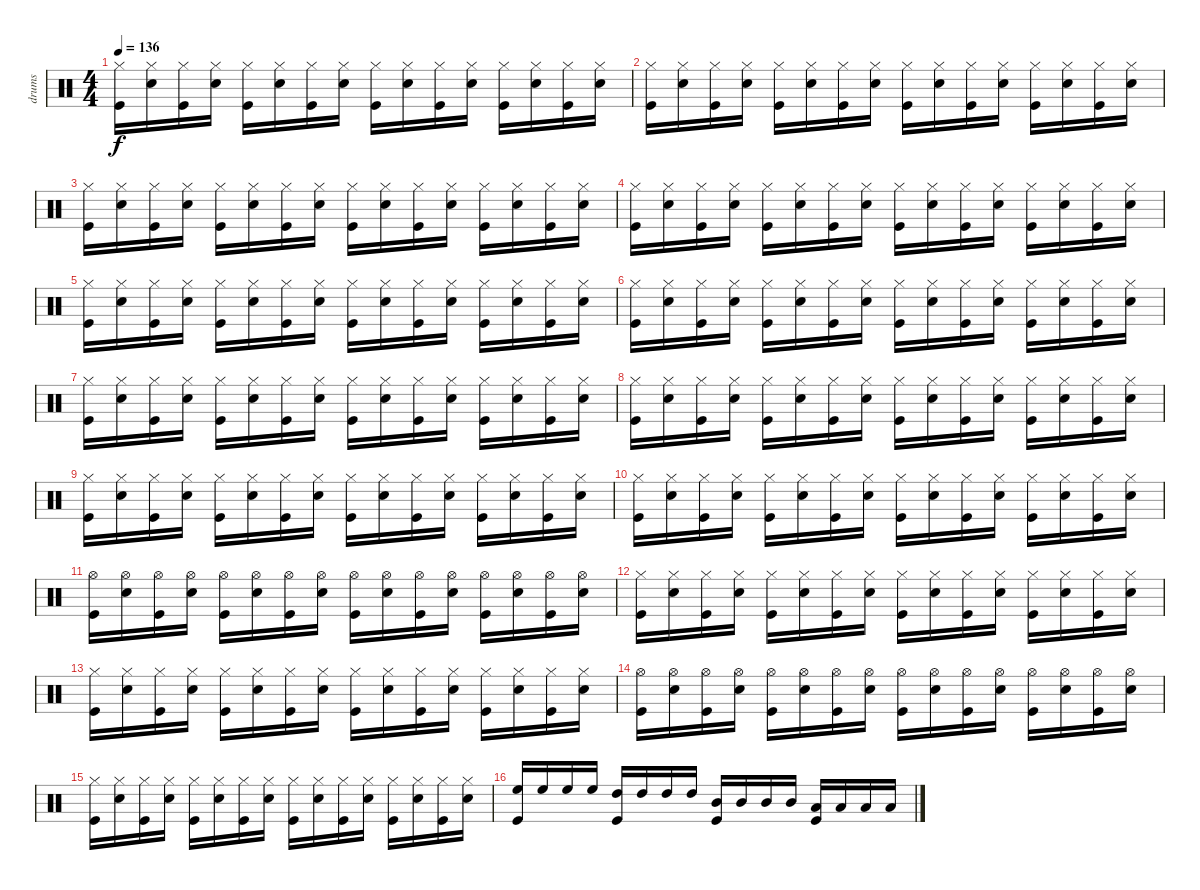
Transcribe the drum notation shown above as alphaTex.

\track ("drums" "drums") {instrument percussion}
\staff {score}
\articulation defaults
\ts (4 4)
\tempo 136
\clef neutral
\ks c
("Hi-Hat (closed)" "Kick (hit)").16{dy f} ("Hi-Hat (closed)" "Snare (hit) 2").16 ("Hi-Hat (closed)" "Kick (hit)").16 ("Hi-Hat (closed)" "Snare (hit) 2").16 ("Hi-Hat (closed)" "Kick (hit)").16 ("Hi-Hat (closed)" "Snare (hit) 2").16 ("Hi-Hat (closed)" "Kick (hit)").16 ("Hi-Hat (closed)" "Snare (hit) 2").16 ("Hi-Hat (closed)" "Kick (hit)").16 ("Hi-Hat (closed)" "Snare (hit) 2").16 ("Hi-Hat (closed)" "Kick (hit)").16 ("Hi-Hat (closed)" "Snare (hit) 2").16 ("Hi-Hat (closed)" "Kick (hit)").16 ("Hi-Hat (closed)" "Snare (hit) 2").16 ("Hi-Hat (closed)" "Kick (hit)").16 ("Hi-Hat (closed)" "Snare (hit) 2").16 |
("Hi-Hat (closed)" "Kick (hit)").16 ("Hi-Hat (closed)" "Snare (hit) 2").16 ("Hi-Hat (closed)" "Kick (hit)").16 ("Hi-Hat (closed)" "Snare (hit) 2").16 ("Hi-Hat (closed)" "Kick (hit)").16 ("Hi-Hat (closed)" "Snare (hit) 2").16 ("Hi-Hat (closed)" "Kick (hit)").16 ("Hi-Hat (closed)" "Snare (hit) 2").16 ("Hi-Hat (closed)" "Kick (hit)").16 ("Hi-Hat (closed)" "Snare (hit) 2").16 ("Hi-Hat (closed)" "Kick (hit)").16 ("Hi-Hat (closed)" "Snare (hit) 2").16 ("Hi-Hat (closed)" "Kick (hit)").16 ("Hi-Hat (closed)" "Snare (hit) 2").16 ("Hi-Hat (closed)" "Kick (hit)").16 ("Hi-Hat (closed)" "Snare (hit) 2").16 |
("Hi-Hat (closed)" "Kick (hit)").16 ("Hi-Hat (closed)" "Snare (hit) 2").16 ("Hi-Hat (closed)" "Kick (hit)").16 ("Hi-Hat (closed)" "Snare (hit) 2").16 ("Hi-Hat (closed)" "Kick (hit)").16 ("Hi-Hat (closed)" "Snare (hit) 2").16 ("Hi-Hat (closed)" "Kick (hit)").16 ("Hi-Hat (closed)" "Snare (hit) 2").16 ("Hi-Hat (closed)" "Kick (hit)").16 ("Hi-Hat (closed)" "Snare (hit) 2").16 ("Hi-Hat (closed)" "Kick (hit)").16 ("Hi-Hat (closed)" "Snare (hit) 2").16 ("Hi-Hat (closed)" "Kick (hit)").16 ("Hi-Hat (closed)" "Snare (hit) 2").16 ("Hi-Hat (closed)" "Kick (hit)").16 ("Hi-Hat (closed)" "Snare (hit) 2").16 |
("Hi-Hat (closed)" "Kick (hit)").16 ("Hi-Hat (closed)" "Snare (hit) 2").16 ("Hi-Hat (closed)" "Kick (hit)").16 ("Hi-Hat (closed)" "Snare (hit) 2").16 ("Hi-Hat (closed)" "Kick (hit)").16 ("Hi-Hat (closed)" "Snare (hit) 2").16 ("Hi-Hat (closed)" "Kick (hit)").16 ("Hi-Hat (closed)" "Snare (hit) 2").16 ("Hi-Hat (closed)" "Kick (hit)").16 ("Hi-Hat (closed)" "Snare (hit) 2").16 ("Hi-Hat (closed)" "Kick (hit)").16 ("Hi-Hat (closed)" "Snare (hit) 2").16 ("Hi-Hat (closed)" "Kick (hit)").16 ("Hi-Hat (closed)" "Snare (hit) 2").16 ("Hi-Hat (closed)" "Kick (hit)").16 ("Hi-Hat (closed)" "Snare (hit) 2").16 |
("Hi-Hat (closed)" "Kick (hit)").16 ("Hi-Hat (closed)" "Snare (hit) 2").16 ("Hi-Hat (closed)" "Kick (hit)").16 ("Hi-Hat (closed)" "Snare (hit) 2").16 ("Hi-Hat (closed)" "Kick (hit)").16 ("Hi-Hat (closed)" "Snare (hit) 2").16 ("Hi-Hat (closed)" "Kick (hit)").16 ("Hi-Hat (closed)" "Snare (hit) 2").16 ("Hi-Hat (closed)" "Kick (hit)").16 ("Hi-Hat (closed)" "Snare (hit) 2").16 ("Hi-Hat (closed)" "Kick (hit)").16 ("Hi-Hat (closed)" "Snare (hit) 2").16 ("Hi-Hat (closed)" "Kick (hit)").16 ("Hi-Hat (closed)" "Snare (hit) 2").16 ("Hi-Hat (closed)" "Kick (hit)").16 ("Hi-Hat (closed)" "Snare (hit) 2").16 |
("Hi-Hat (closed)" "Kick (hit)").16 ("Hi-Hat (closed)" "Snare (hit) 2").16 ("Hi-Hat (closed)" "Kick (hit)").16 ("Hi-Hat (closed)" "Snare (hit) 2").16 ("Hi-Hat (closed)" "Kick (hit)").16 ("Hi-Hat (closed)" "Snare (hit) 2").16 ("Hi-Hat (closed)" "Kick (hit)").16 ("Hi-Hat (closed)" "Snare (hit) 2").16 ("Hi-Hat (closed)" "Kick (hit)").16 ("Hi-Hat (closed)" "Snare (hit) 2").16 ("Hi-Hat (closed)" "Kick (hit)").16 ("Hi-Hat (closed)" "Snare (hit) 2").16 ("Hi-Hat (closed)" "Kick (hit)").16 ("Hi-Hat (closed)" "Snare (hit) 2").16 ("Hi-Hat (closed)" "Kick (hit)").16 ("Hi-Hat (closed)" "Snare (hit) 2").16 |
("Hi-Hat (closed)" "Kick (hit)").16 ("Hi-Hat (closed)" "Snare (hit) 2").16 ("Hi-Hat (closed)" "Kick (hit)").16 ("Hi-Hat (closed)" "Snare (hit) 2").16 ("Hi-Hat (closed)" "Kick (hit)").16 ("Hi-Hat (closed)" "Snare (hit) 2").16 ("Hi-Hat (closed)" "Kick (hit)").16 ("Hi-Hat (closed)" "Snare (hit) 2").16 ("Hi-Hat (closed)" "Kick (hit)").16 ("Hi-Hat (closed)" "Snare (hit) 2").16 ("Hi-Hat (closed)" "Kick (hit)").16 ("Hi-Hat (closed)" "Snare (hit) 2").16 ("Hi-Hat (closed)" "Kick (hit)").16 ("Hi-Hat (closed)" "Snare (hit) 2").16 ("Hi-Hat (closed)" "Kick (hit)").16 ("Hi-Hat (closed)" "Snare (hit) 2").16 |
("Hi-Hat (closed)" "Kick (hit)").16 ("Hi-Hat (closed)" "Snare (hit) 2").16 ("Hi-Hat (closed)" "Kick (hit)").16 ("Hi-Hat (closed)" "Snare (hit) 2").16 ("Hi-Hat (closed)" "Kick (hit)").16 ("Hi-Hat (closed)" "Snare (hit) 2").16 ("Hi-Hat (closed)" "Kick (hit)").16 ("Hi-Hat (closed)" "Snare (hit) 2").16 ("Hi-Hat (closed)" "Kick (hit)").16 ("Hi-Hat (closed)" "Snare (hit) 2").16 ("Hi-Hat (closed)" "Kick (hit)").16 ("Hi-Hat (closed)" "Snare (hit) 2").16 ("Hi-Hat (closed)" "Kick (hit)").16 ("Hi-Hat (closed)" "Snare (hit) 2").16 ("Hi-Hat (closed)" "Kick (hit)").16 ("Hi-Hat (closed)" "Snare (hit) 2").16 |
("Hi-Hat (closed)" "Kick (hit)").16 ("Hi-Hat (closed)" "Snare (hit) 2").16 ("Hi-Hat (closed)" "Kick (hit)").16 ("Hi-Hat (closed)" "Snare (hit) 2").16 ("Hi-Hat (closed)" "Kick (hit)").16 ("Hi-Hat (closed)" "Snare (hit) 2").16 ("Hi-Hat (closed)" "Kick (hit)").16 ("Hi-Hat (closed)" "Snare (hit) 2").16 ("Hi-Hat (closed)" "Kick (hit)").16 ("Hi-Hat (closed)" "Snare (hit) 2").16 ("Hi-Hat (closed)" "Kick (hit)").16 ("Hi-Hat (closed)" "Snare (hit) 2").16 ("Hi-Hat (closed)" "Kick (hit)").16 ("Hi-Hat (closed)" "Snare (hit) 2").16 ("Hi-Hat (closed)" "Kick (hit)").16 ("Hi-Hat (closed)" "Snare (hit) 2").16 |
("Hi-Hat (closed)" "Kick (hit)").16 ("Hi-Hat (closed)" "Snare (hit) 2").16 ("Hi-Hat (closed)" "Kick (hit)").16 ("Hi-Hat (closed)" "Snare (hit) 2").16 ("Hi-Hat (closed)" "Kick (hit)").16 ("Hi-Hat (closed)" "Snare (hit) 2").16 ("Hi-Hat (closed)" "Kick (hit)").16 ("Hi-Hat (closed)" "Snare (hit) 2").16 ("Hi-Hat (closed)" "Kick (hit)").16 ("Hi-Hat (closed)" "Snare (hit) 2").16 ("Hi-Hat (closed)" "Kick (hit)").16 ("Hi-Hat (closed)" "Snare (hit) 2").16 ("Hi-Hat (closed)" "Kick (hit)").16 ("Hi-Hat (closed)" "Snare (hit) 2").16 ("Hi-Hat (closed)" "Kick (hit)").16 ("Hi-Hat (closed)" "Snare (hit) 2").16 |
("Hi-Hat (open)" "Kick (hit)").16 ("Hi-Hat (open)" "Snare (hit) 2").16 ("Hi-Hat (open)" "Kick (hit)").16 ("Hi-Hat (open)" "Snare (hit) 2").16 ("Hi-Hat (open)" "Kick (hit)").16 ("Hi-Hat (open)" "Snare (hit) 2").16 ("Hi-Hat (open)" "Kick (hit)").16 ("Hi-Hat (open)" "Snare (hit) 2").16 ("Hi-Hat (open)" "Kick (hit)").16 ("Hi-Hat (open)" "Snare (hit) 2").16 ("Hi-Hat (open)" "Kick (hit)").16 ("Hi-Hat (open)" "Snare (hit) 2").16 ("Hi-Hat (open)" "Kick (hit)").16 ("Hi-Hat (open)" "Snare (hit) 2").16 ("Hi-Hat (open)" "Kick (hit)").16 ("Hi-Hat (open)" "Snare (hit) 2").16 |
("Hi-Hat (closed)" "Kick (hit)").16 ("Hi-Hat (closed)" "Snare (hit) 2").16 ("Hi-Hat (closed)" "Kick (hit)").16 ("Hi-Hat (closed)" "Snare (hit) 2").16 ("Hi-Hat (closed)" "Kick (hit)").16 ("Hi-Hat (closed)" "Snare (hit) 2").16 ("Hi-Hat (closed)" "Kick (hit)").16 ("Hi-Hat (closed)" "Snare (hit) 2").16 ("Hi-Hat (closed)" "Kick (hit)").16 ("Hi-Hat (closed)" "Snare (hit) 2").16 ("Hi-Hat (closed)" "Kick (hit)").16 ("Hi-Hat (closed)" "Snare (hit) 2").16 ("Hi-Hat (closed)" "Kick (hit)").16 ("Hi-Hat (closed)" "Snare (hit) 2").16 ("Hi-Hat (closed)" "Kick (hit)").16 ("Hi-Hat (closed)" "Snare (hit) 2").16 |
("Hi-Hat (closed)" "Kick (hit)").16 ("Hi-Hat (closed)" "Snare (hit) 2").16 ("Hi-Hat (closed)" "Kick (hit)").16 ("Hi-Hat (closed)" "Snare (hit) 2").16 ("Hi-Hat (closed)" "Kick (hit)").16 ("Hi-Hat (closed)" "Snare (hit) 2").16 ("Hi-Hat (closed)" "Kick (hit)").16 ("Hi-Hat (closed)" "Snare (hit) 2").16 ("Hi-Hat (closed)" "Kick (hit)").16 ("Hi-Hat (closed)" "Snare (hit) 2").16 ("Hi-Hat (closed)" "Kick (hit)").16 ("Hi-Hat (closed)" "Snare (hit) 2").16 ("Hi-Hat (closed)" "Kick (hit)").16 ("Hi-Hat (closed)" "Snare (hit) 2").16 ("Hi-Hat (closed)" "Kick (hit)").16 ("Hi-Hat (closed)" "Snare (hit) 2").16 |
("Hi-Hat (open)" "Kick (hit)").16 ("Hi-Hat (open)" "Snare (hit) 2").16 ("Hi-Hat (open)" "Kick (hit)").16 ("Hi-Hat (open)" "Snare (hit) 2").16 ("Hi-Hat (open)" "Kick (hit)").16 ("Hi-Hat (open)" "Snare (hit) 2").16 ("Hi-Hat (open)" "Kick (hit)").16 ("Hi-Hat (open)" "Snare (hit) 2").16 ("Hi-Hat (open)" "Kick (hit)").16 ("Hi-Hat (open)" "Snare (hit) 2").16 ("Hi-Hat (open)" "Kick (hit)").16 ("Hi-Hat (open)" "Snare (hit) 2").16 ("Hi-Hat (open)" "Kick (hit)").16 ("Hi-Hat (open)" "Snare (hit) 2").16 ("Hi-Hat (open)" "Kick (hit)").16 ("Hi-Hat (open)" "Snare (hit) 2").16 |
("Kick (hit)" "Hi-Hat (closed)").16 ("Hi-Hat (closed)" "Snare (hit) 2").16 ("Hi-Hat (closed)" "Kick (hit)").16 ("Hi-Hat (closed)" "Snare (hit) 2").16 ("Hi-Hat (closed)" "Kick (hit)").16 ("Hi-Hat (closed)" "Snare (hit) 2").16 ("Hi-Hat (closed)" "Kick (hit)").16 ("Hi-Hat (closed)" "Snare (hit) 2").16 ("Hi-Hat (closed)" "Kick (hit)").16 ("Hi-Hat (closed)" "Snare (hit) 2").16 ("Hi-Hat (closed)" "Kick (hit)").16 ("Hi-Hat (closed)" "Snare (hit) 2").16 ("Hi-Hat (closed)" "Kick (hit)").16 ("Hi-Hat (closed)" "Snare (hit) 2").16 ("Hi-Hat (closed)" "Kick (hit)").16 ("Hi-Hat (closed)" "Snare (hit) 2").16 |
("High Floor Tom (hit)" "Kick (hit)").16 "High Floor Tom (hit)".16 "High Floor Tom (hit)".16 "High Floor Tom (hit)".16 ("High Tom (hit)" "Kick (hit)").16 "High Tom (hit)".16 "High Tom (hit)".16 "High Tom (hit)".16 ("Mid Tom (hit)" "Kick (hit)").16 "Mid Tom (hit)".16 "Mid Tom (hit)".16 "Mid Tom (hit)".16 ("Low Tom (hit)" "Kick (hit)").16 "Low Tom (hit)".16 "Low Tom (hit)".16 "Low Tom (hit)".16
